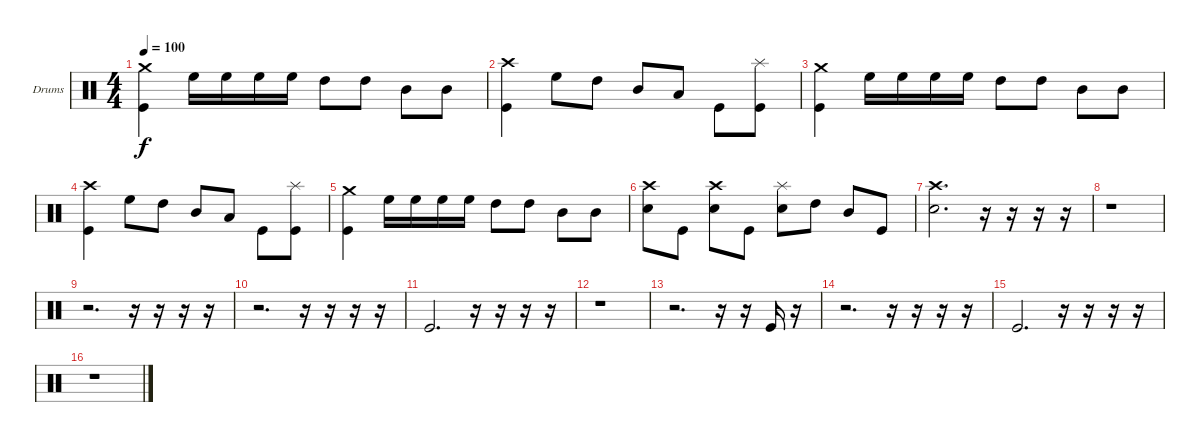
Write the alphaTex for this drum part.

\bracketExtendMode groupsimilarinstruments
\firstSystemTrackNameOrientation horizontal
\otherSystemsTrackNameOrientation horizontal
\track ("Drumkit" "Drums") {instrument percussion}
\staff {score}
\articulation defaults
\ts (4 4)
\tempo 100
\clef neutral
\ks c
("Crash medium (hit)" "Kick (hit)").4{dy f} "High Floor Tom (hit)".16 "High Floor Tom (hit)".16 "High Floor Tom (hit)".16 "High Floor Tom (hit)".16 "High Tom (hit)".8 "High Tom (hit)".8 "Mid Tom (hit)".8 "Mid Tom (hit)".8 |
("Crash high (hit)" "Kick (hit)").4 "High Floor Tom (hit)".8 "High Tom (hit)".8 "Mid Tom (hit)".8 "Low Tom (hit)".8 "Kick (hit)".8 ("Splash (hit)" "Kick (hit)").8 |
("Crash medium (hit)" "Kick (hit)").4 "High Floor Tom (hit)".16 "High Floor Tom (hit)".16 "High Floor Tom (hit)".16 "High Floor Tom (hit)".16 "High Tom (hit)".8 "High Tom (hit)".8 "Mid Tom (hit)".8 "Mid Tom (hit)".8 |
("Crash high (hit)" "Kick (hit)").4 "High Floor Tom (hit)".8 "High Tom (hit)".8 "Mid Tom (hit)".8 "Low Tom (hit)".8 "Kick (hit)".8 ("Splash (hit)" "Kick (hit)").8 |
("Crash medium (hit)" "Kick (hit)").4 "High Floor Tom (hit)".16 "High Floor Tom (hit)".16 "High Floor Tom (hit)".16 "High Floor Tom (hit)".16 "High Tom (hit)".8 "High Tom (hit)".8 "Mid Tom (hit)".8 "Mid Tom (hit)".8 |
("Crash high (hit)" "Snare (hit) 2").8 "Kick (hit)".8 ("Crash high (hit)" "Snare (hit) 2").8 "Kick (hit)".8 ("Splash (hit)" "Snare (hit) 2").8 "High Tom (hit)".8 "Mid Tom (hit)".8 "Kick (hit)".8 |
("Crash high (hit)" "Snare (hit) 2").2{d} r.16 r.16 r.16 r.16 |
r.1 |
r.2{d} r.16 r.16 r.16 r.16 |
r.2{d} r.16 r.16 r.16 r.16 |
"Kick (hit)".2{d} r.16 r.16 r.16 r.16 |
r.1 |
r.2{d} r.16 r.16 "Kick (hit)".16 r.16 |
r.2{d} r.16 r.16 r.16 r.16 |
"Kick (hit)".2{d} r.16 r.16 r.16 r.16 |
r.1
